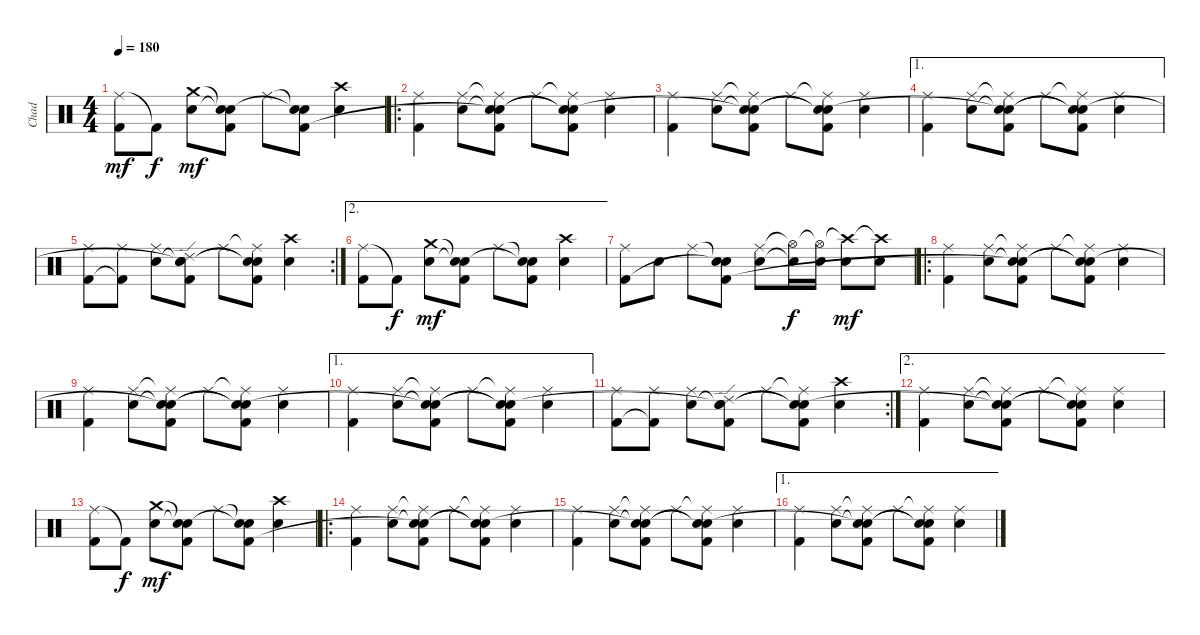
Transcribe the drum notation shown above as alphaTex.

\track ("Chad" "Chad") {instrument percussion}
\staff {score}
\articulation defaults
\ts (4 4)
\tempo 180
\clef neutral
\ks c
("Ride (middle)" "Kick (hit) 2").8{dy mf} "Kick (hit) 2"{t}.8{dy f} ("Crash medium (hit)" "Snare (hit) 2").8{dy mf} ("Snare (hit)"{t} "Snare (hit) 2"{t} "Kick (hit) 2").8 "Ride (middle)".8 ("Snare (hit)"{t} "Snare (hit) 2"{t} "Kick (hit) 2").8 ("Crash high (hit)" "Snare (hit) 2").4 |
\ro
("Ride (middle)" "Kick (hit) 2").4 ("Ride (middle)" "Snare (hit) 2").8 ("Ride (middle)"{t} "Snare (hit)"{t} "Snare (hit) 2"{t} "Kick (hit) 2").8 "Ride (middle)".8 ("Ride (middle)"{t} "Snare (hit)"{t} "Snare (hit) 2"{t} "Kick (hit) 2").8 ("Ride (middle)" "Snare (hit) 2").4 |
("Ride (middle)" "Kick (hit) 2").4 ("Ride (middle)" "Snare (hit) 2").8 ("Ride (middle)"{t} "Snare (hit)"{t} "Snare (hit) 2"{t} "Kick (hit) 2").8 "Ride (middle)".8 ("Ride (middle)"{t} "Snare (hit)"{t} "Snare (hit) 2"{t} "Kick (hit) 2").8 ("Ride (middle)" "Snare (hit) 2").4 |
\ae 1
("Ride (middle)" "Kick (hit) 2").4 ("Ride (middle)" "Snare (hit) 2").8 ("Ride (middle)"{t} "Snare (hit)"{t} "Snare (hit) 2"{t} "Kick (hit) 2").8 "Ride (middle)".8 ("Ride (middle)"{t} "Snare (hit)"{t} "Snare (hit) 2"{t} "Kick (hit) 2").8 ("Ride (middle)" "Snare (hit) 2").4 |
\rc 2
("Ride (middle)" "Kick (hit) 2").8 ("Ride (middle)" "Kick (hit) 2"{t}).8 ("Ride (middle)" "Snare (hit) 2").8 ("Ride (edge) 2" "Snare (hit)"{t} "Snare (hit) 2"{t} "Kick (hit) 2").8 "Ride (middle)".8 ("Ride (middle)"{t} "Snare (hit)"{t} "Snare (hit) 2"{t} "Kick (hit) 2").8 ("Crash high (hit)" "Snare (hit) 2").4 |
\ae 2
("Ride (middle)" "Kick (hit) 2").8 "Kick (hit) 2"{t}.8{dy f} ("Crash medium (hit)" "Snare (hit) 2").8{dy mf} ("Snare (hit)"{t} "Snare (hit) 2"{t} "Kick (hit) 2").8 "Ride (middle)".8 ("Snare (hit)"{t} "Snare (hit) 2"{t} "Kick (hit) 2").8 ("Crash high (hit)" "Snare (hit) 2").4 |
("Ride (middle)" "Kick (hit) 2").8 "Snare (hit) 2".8 "Ride (middle)".8 ("Snare (hit)"{t} "Snare (hit) 2"{t} "Kick (hit) 2").8 ("Ride (middle)" "Snare (hit) 2").8 ("Hi-Hat (open)"{t} "Snare (hit) 2"{t}).16{dy f} ("Hi-Hat (open)"{t} "Snare (hit) 2").16 ("Crash high (hit)"{t} "Snare (hit) 2").8{dy mf} ("Crash high (hit)"{t} "Snare (hit) 2").8 |
\ro
("Ride (middle)" "Kick (hit) 2").4 ("Ride (middle)" "Snare (hit) 2").8 ("Ride (middle)"{t} "Snare (hit)"{t} "Snare (hit) 2"{t} "Kick (hit) 2").8 "Ride (middle)".8 ("Ride (middle)"{t} "Snare (hit)"{t} "Snare (hit) 2"{t} "Kick (hit) 2").8 ("Ride (middle)" "Snare (hit) 2").4 |
("Ride (middle)" "Kick (hit) 2").4 ("Ride (middle)" "Snare (hit) 2").8 ("Ride (middle)"{t} "Snare (hit)"{t} "Snare (hit) 2"{t} "Kick (hit) 2").8 "Ride (middle)".8 ("Ride (middle)"{t} "Snare (hit)"{t} "Snare (hit) 2"{t} "Kick (hit) 2").8 ("Ride (middle)" "Snare (hit) 2").4 |
\ae 1
("Ride (middle)" "Kick (hit) 2").4 ("Ride (middle)" "Snare (hit) 2").8 ("Ride (middle)"{t} "Snare (hit)"{t} "Snare (hit) 2"{t} "Kick (hit) 2").8 "Ride (middle)".8 ("Ride (middle)"{t} "Snare (hit)"{t} "Snare (hit) 2"{t} "Kick (hit) 2").8 ("Ride (middle)" "Snare (hit) 2").4 |
\rc 2
("Ride (middle)" "Kick (hit) 2").8 ("Ride (middle)" "Kick (hit) 2"{t}).8 ("Ride (middle)" "Snare (hit) 2").8 ("Ride (edge) 2" "Snare (hit)"{t} "Snare (hit) 2"{t} "Kick (hit) 2").8 "Ride (middle)".8 ("Ride (middle)"{t} "Snare (hit)"{t} "Snare (hit) 2"{t} "Kick (hit) 2").8 ("Crash high (hit)" "Snare (hit) 2").4 |
\ae 2
("Ride (middle)" "Kick (hit) 2").4 ("Ride (middle)" "Snare (hit) 2").8 ("Ride (middle)"{t} "Snare (hit)"{t} "Snare (hit) 2"{t} "Kick (hit) 2").8 "Ride (middle)".8 ("Ride (middle)"{t} "Snare (hit)"{t} "Snare (hit) 2"{t} "Kick (hit) 2").8 ("Ride (middle)" "Snare (hit) 2").4 |
("Ride (middle)" "Kick (hit) 2").8 "Kick (hit) 2"{t}.8{dy f} ("Crash medium (hit)" "Snare (hit) 2").8{dy mf} ("Snare (hit)"{t} "Snare (hit) 2"{t} "Kick (hit) 2").8 "Ride (middle)".8 ("Snare (hit)"{t} "Snare (hit) 2"{t} "Kick (hit) 2").8 ("Crash high (hit)" "Snare (hit) 2").4 |
\ro
("Ride (middle)" "Kick (hit) 2").4 ("Ride (middle)" "Snare (hit) 2").8 ("Ride (middle)"{t} "Snare (hit)"{t} "Snare (hit) 2"{t} "Kick (hit) 2").8 "Ride (middle)".8 ("Ride (middle)"{t} "Snare (hit)"{t} "Snare (hit) 2"{t} "Kick (hit) 2").8 ("Ride (middle)" "Snare (hit) 2").4 |
("Ride (middle)" "Kick (hit) 2").4 ("Ride (middle)" "Snare (hit) 2").8 ("Ride (middle)"{t} "Snare (hit)"{t} "Snare (hit) 2"{t} "Kick (hit) 2").8 "Ride (middle)".8 ("Ride (middle)"{t} "Snare (hit)"{t} "Snare (hit) 2"{t} "Kick (hit) 2").8 ("Ride (middle)" "Snare (hit) 2").4 |
\ae 1
("Ride (middle)" "Kick (hit) 2").4 ("Ride (middle)" "Snare (hit) 2").8 ("Ride (middle)"{t} "Snare (hit)"{t} "Snare (hit) 2"{t} "Kick (hit) 2").8 "Ride (middle)".8 ("Ride (middle)"{t} "Snare (hit)"{t} "Snare (hit) 2"{t} "Kick (hit) 2").8 ("Ride (middle)" "Snare (hit) 2").4
